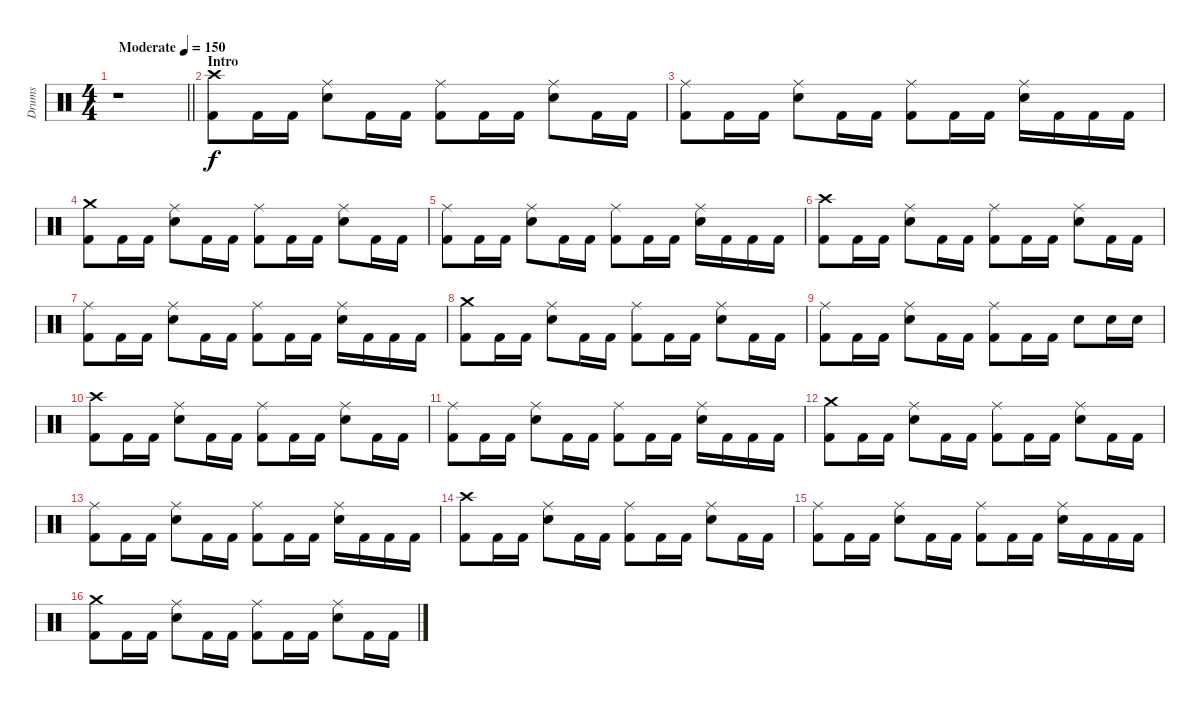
\track ("Drums" "Drums") {instrument percussion}
\staff {score}
\articulation defaults
\ts (4 4)
\tempo (150 "Moderate")
\clef neutral
\barLineRight lightlight
\ks c
r.1{dy f} |
\section ("" "Intro")
("Crash high (hit)" "Kick (hit) 2").8 "Kick (hit) 2".16 "Kick (hit) 2".16 ("Ride (middle)" "Snare (hit) 2").8 "Kick (hit) 2".16 "Kick (hit) 2".16 ("Ride (middle)" "Kick (hit) 2").8 "Kick (hit) 2".16 "Kick (hit) 2".16 ("Ride (middle)" "Snare (hit) 2").8 "Kick (hit) 2".16 "Kick (hit) 2".16 |
("Ride (middle)" "Kick (hit) 2").8 "Kick (hit) 2".16 "Kick (hit) 2".16 ("Ride (middle)" "Snare (hit) 2").8 "Kick (hit) 2".16 "Kick (hit) 2".16 ("Ride (middle)" "Kick (hit) 2").8 "Kick (hit) 2".16 "Kick (hit) 2".16 ("Ride (middle)" "Snare (hit) 2").16 "Kick (hit) 2".16 "Kick (hit) 2".16 "Kick (hit) 2".16 |
("Crash medium (hit)" "Kick (hit) 2").8 "Kick (hit) 2".16 "Kick (hit) 2".16 ("Ride (middle)" "Snare (hit) 2").8 "Kick (hit) 2".16 "Kick (hit) 2".16 ("Ride (middle)" "Kick (hit) 2").8 "Kick (hit) 2".16 "Kick (hit) 2".16 ("Ride (middle)" "Snare (hit) 2").8 "Kick (hit) 2".16 "Kick (hit) 2".16 |
("Ride (middle)" "Kick (hit) 2").8 "Kick (hit) 2".16 "Kick (hit) 2".16 ("Ride (middle)" "Snare (hit) 2").8 "Kick (hit) 2".16 "Kick (hit) 2".16 ("Ride (middle)" "Kick (hit) 2").8 "Kick (hit) 2".16 "Kick (hit) 2".16 ("Ride (middle)" "Snare (hit) 2").16 "Kick (hit) 2".16 "Kick (hit) 2".16 "Kick (hit) 2".16 |
("Crash high (hit)" "Kick (hit) 2").8 "Kick (hit) 2".16 "Kick (hit) 2".16 ("Ride (middle)" "Snare (hit) 2").8 "Kick (hit) 2".16 "Kick (hit) 2".16 ("Ride (middle)" "Kick (hit) 2").8 "Kick (hit) 2".16 "Kick (hit) 2".16 ("Ride (middle)" "Snare (hit) 2").8 "Kick (hit) 2".16 "Kick (hit) 2".16 |
("Ride (middle)" "Kick (hit) 2").8 "Kick (hit) 2".16 "Kick (hit) 2".16 ("Ride (middle)" "Snare (hit) 2").8 "Kick (hit) 2".16 "Kick (hit) 2".16 ("Ride (middle)" "Kick (hit) 2").8 "Kick (hit) 2".16 "Kick (hit) 2".16 ("Ride (middle)" "Snare (hit) 2").16 "Kick (hit) 2".16 "Kick (hit) 2".16 "Kick (hit) 2".16 |
("Crash medium (hit)" "Kick (hit) 2").8 "Kick (hit) 2".16 "Kick (hit) 2".16 ("Ride (middle)" "Snare (hit) 2").8 "Kick (hit) 2".16 "Kick (hit) 2".16 ("Ride (middle)" "Kick (hit) 2").8 "Kick (hit) 2".16 "Kick (hit) 2".16 ("Ride (middle)" "Snare (hit) 2").8 "Kick (hit) 2".16 "Kick (hit) 2".16 |
("Ride (middle)" "Kick (hit) 2").8 "Kick (hit) 2".16 "Kick (hit) 2".16 ("Ride (middle)" "Snare (hit) 2").8 "Kick (hit) 2".16 "Kick (hit) 2".16 ("Ride (middle)" "Kick (hit) 2").8 "Kick (hit) 2".16 "Kick (hit) 2".16 "Snare (hit) 2".8 "Snare (hit) 2".16 "Snare (hit) 2".16 |
("Crash high (hit)" "Kick (hit) 2").8 "Kick (hit) 2".16 "Kick (hit) 2".16 ("Ride (middle)" "Snare (hit) 2").8 "Kick (hit) 2".16 "Kick (hit) 2".16 ("Ride (middle)" "Kick (hit) 2").8 "Kick (hit) 2".16 "Kick (hit) 2".16 ("Ride (middle)" "Snare (hit) 2").8 "Kick (hit) 2".16 "Kick (hit) 2".16 |
("Ride (middle)" "Kick (hit) 2").8 "Kick (hit) 2".16 "Kick (hit) 2".16 ("Ride (middle)" "Snare (hit) 2").8 "Kick (hit) 2".16 "Kick (hit) 2".16 ("Ride (middle)" "Kick (hit) 2").8 "Kick (hit) 2".16 "Kick (hit) 2".16 ("Ride (middle)" "Snare (hit) 2").16 "Kick (hit) 2".16 "Kick (hit) 2".16 "Kick (hit) 2".16 |
("Crash medium (hit)" "Kick (hit) 2").8 "Kick (hit) 2".16 "Kick (hit) 2".16 ("Ride (middle)" "Snare (hit) 2").8 "Kick (hit) 2".16 "Kick (hit) 2".16 ("Ride (middle)" "Kick (hit) 2").8 "Kick (hit) 2".16 "Kick (hit) 2".16 ("Ride (middle)" "Snare (hit) 2").8 "Kick (hit) 2".16 "Kick (hit) 2".16 |
("Ride (middle)" "Kick (hit) 2").8 "Kick (hit) 2".16 "Kick (hit) 2".16 ("Ride (middle)" "Snare (hit) 2").8 "Kick (hit) 2".16 "Kick (hit) 2".16 ("Ride (middle)" "Kick (hit) 2").8 "Kick (hit) 2".16 "Kick (hit) 2".16 ("Ride (middle)" "Snare (hit) 2").16 "Kick (hit) 2".16 "Kick (hit) 2".16 "Kick (hit) 2".16 |
("Crash high (hit)" "Kick (hit) 2").8 "Kick (hit) 2".16 "Kick (hit) 2".16 ("Ride (middle)" "Snare (hit) 2").8 "Kick (hit) 2".16 "Kick (hit) 2".16 ("Ride (middle)" "Kick (hit) 2").8 "Kick (hit) 2".16 "Kick (hit) 2".16 ("Ride (middle)" "Snare (hit) 2").8 "Kick (hit) 2".16 "Kick (hit) 2".16 |
("Ride (middle)" "Kick (hit) 2").8 "Kick (hit) 2".16 "Kick (hit) 2".16 ("Ride (middle)" "Snare (hit) 2").8 "Kick (hit) 2".16 "Kick (hit) 2".16 ("Ride (middle)" "Kick (hit) 2").8 "Kick (hit) 2".16 "Kick (hit) 2".16 ("Ride (middle)" "Snare (hit) 2").16 "Kick (hit) 2".16 "Kick (hit) 2".16 "Kick (hit) 2".16 |
("Crash medium (hit)" "Kick (hit) 2").8 "Kick (hit) 2".16 "Kick (hit) 2".16 ("Ride (middle)" "Snare (hit) 2").8 "Kick (hit) 2".16 "Kick (hit) 2".16 ("Ride (middle)" "Kick (hit) 2").8 "Kick (hit) 2".16 "Kick (hit) 2".16 ("Ride (middle)" "Snare (hit) 2").8 "Kick (hit) 2".16 "Kick (hit) 2".16
